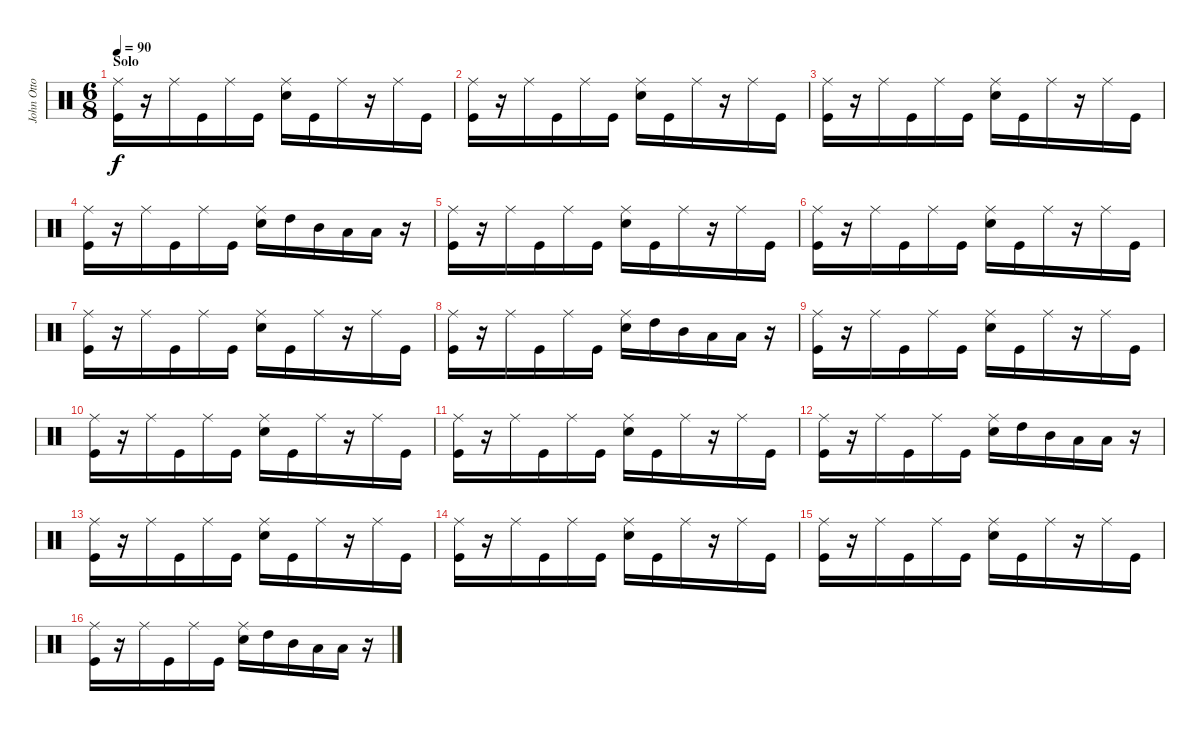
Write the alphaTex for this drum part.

\track ("John Otto" "John Otto") {instrument percussion}
\staff {score}
\articulation defaults
\ts (6 8)
\section ("" "Solo")
\tempo 90
\clef neutral
\ks c
("Ride (middle)" "Kick (hit)").16{dy f} r.16 "Ride (middle)".16 "Kick (hit)".16 "Ride (middle)".16 "Kick (hit)".16 ("Ride (middle)" "Electric Snare (hit)").16 "Kick (hit)".16 "Ride (middle)".16 r.16 "Ride (middle)".16 "Kick (hit)".16 |
("Ride (middle)" "Kick (hit)").16 r.16 "Ride (middle)".16 "Kick (hit)".16 "Ride (middle)".16 "Kick (hit)".16 ("Ride (middle)" "Electric Snare (hit)").16 "Kick (hit)".16 "Ride (middle)".16 r.16 "Ride (middle)".16 "Kick (hit)".16 |
("Ride (middle)" "Kick (hit)").16 r.16 "Ride (middle)".16 "Kick (hit)".16 "Ride (middle)".16 "Kick (hit)".16 ("Ride (middle)" "Electric Snare (hit)").16 "Kick (hit)".16 "Ride (middle)".16 r.16 "Ride (middle)".16 "Kick (hit)".16 |
("Ride (middle)" "Kick (hit)").16 r.16 "Ride (middle)".16 "Kick (hit)".16 "Ride (middle)".16 "Kick (hit)".16 ("Ride (middle)" "Electric Snare (hit)").16 "High Tom (hit)".16 "Mid Tom (hit)".16 "Low Tom (hit)".16 "Low Floor Tom (hit)".16 r.16 |
("Ride (middle)" "Kick (hit)").16 r.16 "Ride (middle)".16 "Kick (hit)".16 "Ride (middle)".16 "Kick (hit)".16 ("Ride (middle)" "Electric Snare (hit)").16 "Kick (hit)".16 "Ride (middle)".16 r.16 "Ride (middle)".16 "Kick (hit)".16 |
("Ride (middle)" "Kick (hit)").16 r.16 "Ride (middle)".16 "Kick (hit)".16 "Ride (middle)".16 "Kick (hit)".16 ("Ride (middle)" "Electric Snare (hit)").16 "Kick (hit)".16 "Ride (middle)".16 r.16 "Ride (middle)".16 "Kick (hit)".16 |
("Ride (middle)" "Kick (hit)").16 r.16 "Ride (middle)".16 "Kick (hit)".16 "Ride (middle)".16 "Kick (hit)".16 ("Ride (middle)" "Electric Snare (hit)").16 "Kick (hit)".16 "Ride (middle)".16 r.16 "Ride (middle)".16 "Kick (hit)".16 |
("Ride (middle)" "Kick (hit)").16 r.16 "Ride (middle)".16 "Kick (hit)".16 "Ride (middle)".16 "Kick (hit)".16 ("Ride (middle)" "Electric Snare (hit)").16 "High Tom (hit)".16 "Mid Tom (hit)".16 "Low Tom (hit)".16 "Low Floor Tom (hit)".16 r.16 |
("Ride (middle)" "Kick (hit)").16 r.16 "Ride (middle)".16 "Kick (hit)".16 "Ride (middle)".16 "Kick (hit)".16 ("Ride (middle)" "Electric Snare (hit)").16 "Kick (hit)".16 "Ride (middle)".16 r.16 "Ride (middle)".16 "Kick (hit)".16 |
("Ride (middle)" "Kick (hit)").16 r.16 "Ride (middle)".16 "Kick (hit)".16 "Ride (middle)".16 "Kick (hit)".16 ("Ride (middle)" "Electric Snare (hit)").16 "Kick (hit)".16 "Ride (middle)".16 r.16 "Ride (middle)".16 "Kick (hit)".16 |
("Ride (middle)" "Kick (hit)").16 r.16 "Ride (middle)".16 "Kick (hit)".16 "Ride (middle)".16 "Kick (hit)".16 ("Ride (middle)" "Electric Snare (hit)").16 "Kick (hit)".16 "Ride (middle)".16 r.16 "Ride (middle)".16 "Kick (hit)".16 |
("Ride (middle)" "Kick (hit)").16 r.16 "Ride (middle)".16 "Kick (hit)".16 "Ride (middle)".16 "Kick (hit)".16 ("Ride (middle)" "Electric Snare (hit)").16 "High Tom (hit)".16 "Mid Tom (hit)".16 "Low Tom (hit)".16 "Low Floor Tom (hit)".16 r.16 |
("Ride (middle)" "Kick (hit)").16 r.16 "Ride (middle)".16 "Kick (hit)".16 "Ride (middle)".16 "Kick (hit)".16 ("Ride (middle)" "Electric Snare (hit)").16 "Kick (hit)".16 "Ride (middle)".16 r.16 "Ride (middle)".16 "Kick (hit)".16 |
("Ride (middle)" "Kick (hit)").16 r.16 "Ride (middle)".16 "Kick (hit)".16 "Ride (middle)".16 "Kick (hit)".16 ("Ride (middle)" "Electric Snare (hit)").16 "Kick (hit)".16 "Ride (middle)".16 r.16 "Ride (middle)".16 "Kick (hit)".16 |
("Ride (middle)" "Kick (hit)").16 r.16 "Ride (middle)".16 "Kick (hit)".16 "Ride (middle)".16 "Kick (hit)".16 ("Ride (middle)" "Electric Snare (hit)").16 "Kick (hit)".16 "Ride (middle)".16 r.16 "Ride (middle)".16 "Kick (hit)".16 |
("Ride (middle)" "Kick (hit)").16 r.16 "Ride (middle)".16 "Kick (hit)".16 "Ride (middle)".16 "Kick (hit)".16 ("Ride (middle)" "Electric Snare (hit)").16 "High Tom (hit)".16 "Mid Tom (hit)".16 "Low Tom (hit)".16 "Low Floor Tom (hit)".16 r.16
